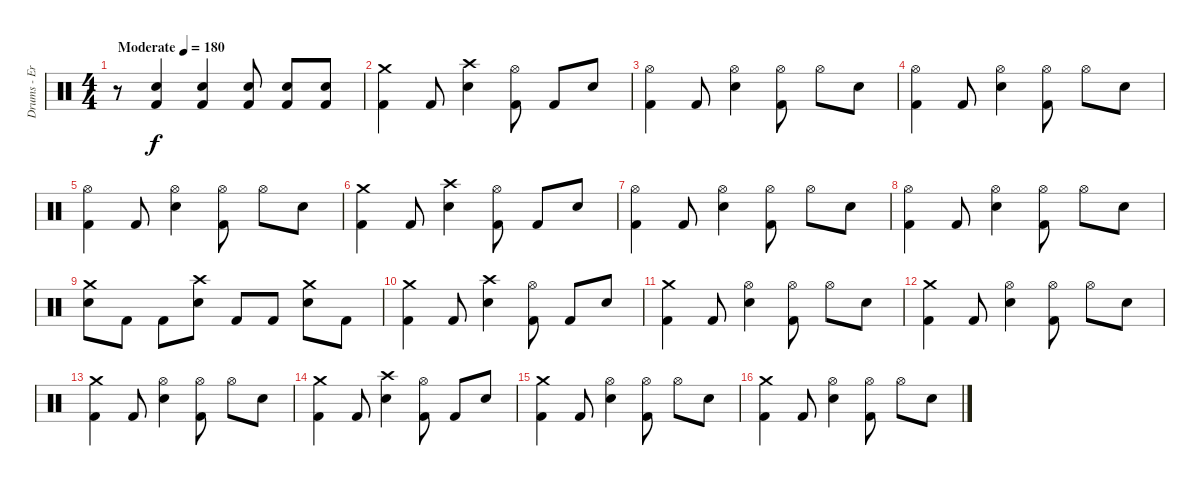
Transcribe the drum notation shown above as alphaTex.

\track ("Drums - Eric Young" "Drums - Er") {instrument percussion}
\staff {score}
\articulation defaults
\ts (4 4)
\tempo (180 "Moderate")
\clef neutral
\ks c
r.8{dy f} ("Electric Snare (hit)" "Kick (hit) 2").4 ("Electric Snare (hit)" "Kick (hit) 2").4 ("Electric Snare (hit)" "Kick (hit) 2").8 ("Electric Snare (hit)" "Kick (hit) 2").8 ("Electric Snare (hit)" "Kick (hit) 2").8 |
("Crash medium (hit)" "Kick (hit) 2").4 "Kick (hit) 2".8 ("Crash high (hit)" "Electric Snare (hit)").4 ("Hi-Hat (open)" "Kick (hit) 2").8 "Kick (hit) 2".8 "Electric Snare (hit)".8 |
("Hi-Hat (open)" "Kick (hit) 2").4 "Kick (hit) 2".8 ("Hi-Hat (open)" "Electric Snare (hit)").4 ("Hi-Hat (open)" "Kick (hit) 2").8 "Hi-Hat (open)".8 "Electric Snare (hit)".8 |
("Hi-Hat (open)" "Kick (hit) 2").4 "Kick (hit) 2".8 ("Hi-Hat (open)" "Electric Snare (hit)").4 ("Hi-Hat (open)" "Kick (hit) 2").8 "Hi-Hat (open)".8 "Electric Snare (hit)".8 |
("Hi-Hat (open)" "Kick (hit) 2").4 "Kick (hit) 2".8 ("Hi-Hat (open)" "Electric Snare (hit)").4 ("Hi-Hat (open)" "Kick (hit) 2").8 "Hi-Hat (open)".8 "Electric Snare (hit)".8 |
("Crash medium (hit)" "Kick (hit) 2").4 "Kick (hit) 2".8 ("Crash high (hit)" "Electric Snare (hit)").4 ("Hi-Hat (open)" "Kick (hit) 2").8 "Kick (hit) 2".8 "Electric Snare (hit)".8 |
("Hi-Hat (open)" "Kick (hit) 2").4 "Kick (hit) 2".8 ("Hi-Hat (open)" "Electric Snare (hit)").4 ("Hi-Hat (open)" "Kick (hit) 2").8 "Hi-Hat (open)".8 "Electric Snare (hit)".8 |
("Hi-Hat (open)" "Kick (hit) 2").4 "Kick (hit) 2".8 ("Hi-Hat (open)" "Electric Snare (hit)").4 ("Hi-Hat (open)" "Kick (hit) 2").8 "Hi-Hat (open)".8 "Electric Snare (hit)".8 |
("Crash medium (hit)" "Electric Snare (hit)").8 "Kick (hit) 2".8 "Kick (hit) 2".8 ("Crash high (hit)" "Electric Snare (hit)").8 "Kick (hit) 2".8 "Kick (hit) 2".8 ("Crash medium (hit)" "Electric Snare (hit)").8 "Kick (hit) 2".8 |
("Crash medium (hit)" "Kick (hit) 2").4 "Kick (hit) 2".8 ("Crash high (hit)" "Electric Snare (hit)").4 ("Hi-Hat (open)" "Kick (hit) 2").8 "Kick (hit) 2".8 "Electric Snare (hit)".8 |
("Crash medium (hit)" "Kick (hit) 2").4 "Kick (hit) 2".8 ("Hi-Hat (open)" "Electric Snare (hit)").4 ("Hi-Hat (open)" "Kick (hit) 2").8 "Hi-Hat (open)".8 "Electric Snare (hit)".8 |
("Crash medium (hit)" "Kick (hit) 2").4 "Kick (hit) 2".8 ("Hi-Hat (open)" "Electric Snare (hit)").4 ("Hi-Hat (open)" "Kick (hit) 2").8 "Hi-Hat (open)".8 "Electric Snare (hit)".8 |
("Crash medium (hit)" "Kick (hit) 2").4 "Kick (hit) 2".8 ("Hi-Hat (open)" "Electric Snare (hit)").4 ("Hi-Hat (open)" "Kick (hit) 2").8 "Hi-Hat (open)".8 "Electric Snare (hit)".8 |
("Crash medium (hit)" "Kick (hit) 2").4 "Kick (hit) 2".8 ("Crash high (hit)" "Electric Snare (hit)").4 ("Hi-Hat (open)" "Kick (hit) 2").8 "Kick (hit) 2".8 "Electric Snare (hit)".8 |
("Crash medium (hit)" "Kick (hit) 2").4 "Kick (hit) 2".8 ("Hi-Hat (open)" "Electric Snare (hit)").4 ("Hi-Hat (open)" "Kick (hit) 2").8 "Hi-Hat (open)".8 "Electric Snare (hit)".8 |
("Crash medium (hit)" "Kick (hit) 2").4 "Kick (hit) 2".8 ("Hi-Hat (open)" "Electric Snare (hit)").4 ("Hi-Hat (open)" "Kick (hit) 2").8 "Hi-Hat (open)".8 "Electric Snare (hit)".8
